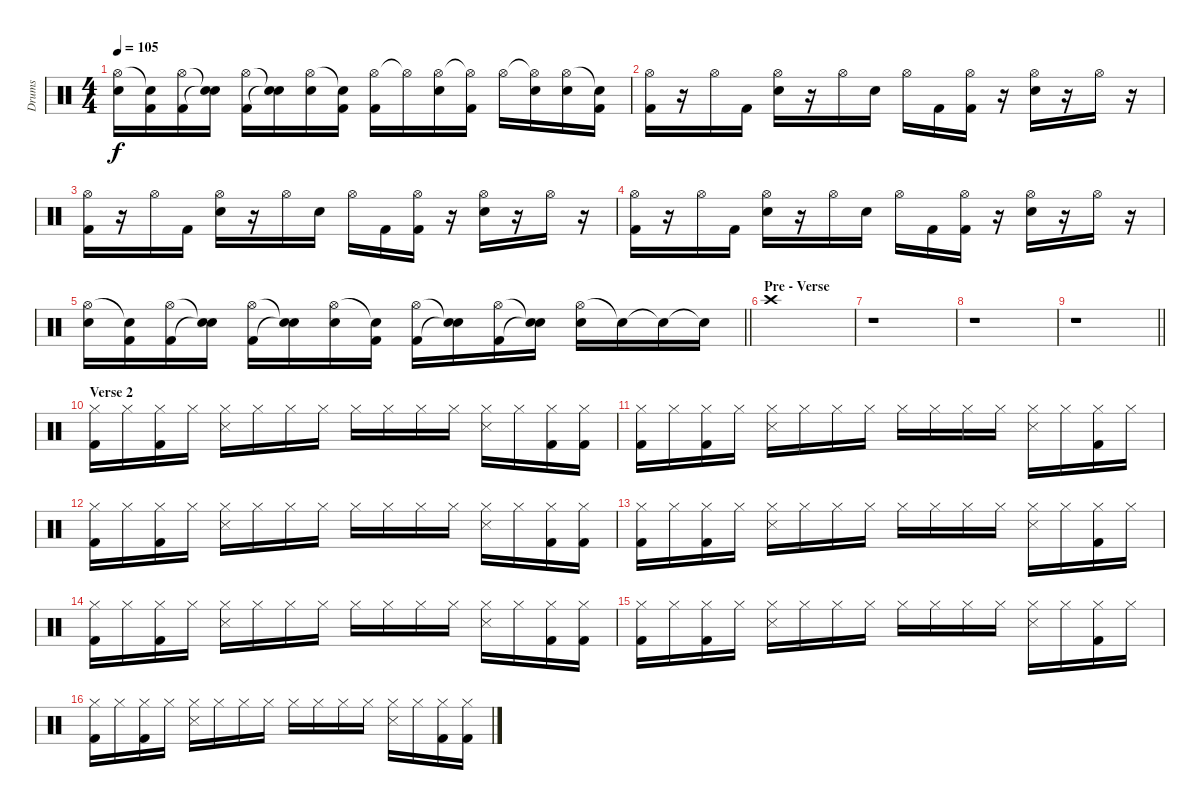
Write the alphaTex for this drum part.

\track ("Drums" "Drums") {instrument percussion}
\staff {score}
\articulation defaults
\ts (4 4)
\tempo 105
\clef neutral
\ks c
("Hi-Hat (open)" "Electric Snare (hit)").16{dy f} ("Snare (hit)"{t} "Kick (hit) 2").16 ("Hi-Hat (open)" "Kick (hit) 2").16 ("Snare (hit)"{t} "Snare (hit)"{t}).16 ("Hi-Hat (open)" "Kick (hit) 2").16 ("Snare (hit)"{t} "Snare (hit)"{t}).16 ("Hi-Hat (open)" "Electric Snare (hit)").16 ("Snare (hit)"{t} "Kick (hit) 2").16 ("Hi-Hat (open)" "Kick (hit) 2").16 "Hi-Hat (open)"{t}.16 ("Hi-Hat (open)" "Electric Snare (hit)").16 ("Hi-Hat (open)"{t} "Kick (hit) 2").16 "Hi-Hat (open)".16 ("Hi-Hat (open)"{t} "Electric Snare (hit)").16 ("Hi-Hat (open)" "Electric Snare (hit)").16 ("Snare (hit)"{t} "Kick (hit) 2").16 |
("Hi-Hat (open)" "Kick (hit) 2").16 r.16 "Hi-Hat (open)".16 "Kick (hit) 2".16 ("Hi-Hat (open)" "Electric Snare (hit)").16 r.16 "Hi-Hat (open)".16 "Electric Snare (hit)".16 "Hi-Hat (open)".16 "Kick (hit) 2".16 ("Hi-Hat (open)" "Kick (hit) 2").16 r.16 ("Hi-Hat (open)" "Electric Snare (hit)").16 r.16 "Hi-Hat (open)".16 r.16 |
("Hi-Hat (open)" "Kick (hit) 2").16 r.16 "Hi-Hat (open)".16 "Kick (hit) 2".16 ("Hi-Hat (open)" "Electric Snare (hit)").16 r.16 "Hi-Hat (open)".16 "Electric Snare (hit)".16 "Hi-Hat (open)".16 "Kick (hit) 2".16 ("Hi-Hat (open)" "Kick (hit) 2").16 r.16 ("Hi-Hat (open)" "Electric Snare (hit)").16 r.16 "Hi-Hat (open)".16 r.16 |
("Hi-Hat (open)" "Kick (hit) 2").16 r.16 "Hi-Hat (open)".16 "Kick (hit) 2".16 ("Hi-Hat (open)" "Electric Snare (hit)").16 r.16 "Hi-Hat (open)".16 "Electric Snare (hit)".16 "Hi-Hat (open)".16 "Kick (hit) 2".16 ("Hi-Hat (open)" "Kick (hit) 2").16 r.16 ("Hi-Hat (open)" "Electric Snare (hit)").16 r.16 "Hi-Hat (open)".16 r.16 |
\barLineRight lightlight
("Hi-Hat (open)" "Electric Snare (hit)").16 ("Snare (hit)"{t} "Kick (hit) 2").16 ("Hi-Hat (open)" "Kick (hit) 2").16 ("Snare (hit)"{t} "Snare (hit)"{t}).16 ("Hi-Hat (open)" "Kick (hit) 2").16 ("Snare (hit)"{t} "Snare (hit)"{t}).16 ("Hi-Hat (open)" "Electric Snare (hit)").16 ("Snare (hit)"{t} "Kick (hit) 2").16 ("Hi-Hat (open)" "Kick (hit) 2").16 ("Snare (hit)"{t} "Snare (hit)"{t}).16 ("Hi-Hat (open)" "Kick (hit) 2").16 ("Snare (hit)"{t} "Snare (hit)"{t}).16 ("Hi-Hat (open)" "Electric Snare (hit)").16 "Snare (hit)"{t}.16 "Snare (hit)"{t}.16 "Snare (hit)"{t}.16 |
\section ("" "Pre - Verse")
"Crash high (hit)".1 |
r.1 |
r.1 |
\barLineRight lightlight
r.1 |
\section ("" "Verse 2")
("Hi-Hat (closed)" "Kick (hit) 2").16 "Hi-Hat (closed)".16 ("Hi-Hat (closed)" "Kick (hit) 2").16 "Hi-Hat (closed)".16 ("Hi-Hat (closed)" "Snare (side stick) 3").16 "Hi-Hat (closed)".16 "Hi-Hat (closed)".16 "Hi-Hat (closed)".16 "Hi-Hat (closed)".16 "Hi-Hat (closed)".16 "Hi-Hat (closed)".16 "Hi-Hat (closed)".16 ("Hi-Hat (closed)" "Snare (side stick) 3").16 "Hi-Hat (closed)".16 ("Hi-Hat (closed)" "Kick (hit) 2").16 ("Hi-Hat (closed)" "Kick (hit) 2").16 |
("Hi-Hat (closed)" "Kick (hit) 2").16 "Hi-Hat (closed)".16 ("Hi-Hat (closed)" "Kick (hit) 2").16 "Hi-Hat (closed)".16 ("Hi-Hat (closed)" "Snare (side stick) 3").16 "Hi-Hat (closed)".16 "Hi-Hat (closed)".16 "Hi-Hat (closed)".16 "Hi-Hat (closed)".16 "Hi-Hat (closed)".16 "Hi-Hat (closed)".16 "Hi-Hat (closed)".16 ("Hi-Hat (closed)" "Snare (side stick) 3").16 "Hi-Hat (closed)".16 ("Hi-Hat (closed)" "Kick (hit) 2").16 "Hi-Hat (closed)".16 |
("Hi-Hat (closed)" "Kick (hit) 2").16 "Hi-Hat (closed)".16 ("Hi-Hat (closed)" "Kick (hit) 2").16 "Hi-Hat (closed)".16 ("Hi-Hat (closed)" "Snare (side stick) 3").16 "Hi-Hat (closed)".16 "Hi-Hat (closed)".16 "Hi-Hat (closed)".16 "Hi-Hat (closed)".16 "Hi-Hat (closed)".16 "Hi-Hat (closed)".16 "Hi-Hat (closed)".16 ("Hi-Hat (closed)" "Snare (side stick) 3").16 "Hi-Hat (closed)".16 ("Hi-Hat (closed)" "Kick (hit) 2").16 ("Hi-Hat (closed)" "Kick (hit) 2").16 |
("Hi-Hat (closed)" "Kick (hit) 2").16 "Hi-Hat (closed)".16 ("Hi-Hat (closed)" "Kick (hit) 2").16 "Hi-Hat (closed)".16 ("Hi-Hat (closed)" "Snare (side stick) 3").16 "Hi-Hat (closed)".16 "Hi-Hat (closed)".16 "Hi-Hat (closed)".16 "Hi-Hat (closed)".16 "Hi-Hat (closed)".16 "Hi-Hat (closed)".16 "Hi-Hat (closed)".16 ("Hi-Hat (closed)" "Snare (side stick) 3").16 "Hi-Hat (closed)".16 ("Hi-Hat (closed)" "Kick (hit) 2").16 "Hi-Hat (closed)".16 |
("Hi-Hat (closed)" "Kick (hit) 2").16 "Hi-Hat (closed)".16 ("Hi-Hat (closed)" "Kick (hit) 2").16 "Hi-Hat (closed)".16 ("Hi-Hat (closed)" "Snare (side stick) 3").16 "Hi-Hat (closed)".16 "Hi-Hat (closed)".16 "Hi-Hat (closed)".16 "Hi-Hat (closed)".16 "Hi-Hat (closed)".16 "Hi-Hat (closed)".16 "Hi-Hat (closed)".16 ("Hi-Hat (closed)" "Snare (side stick) 3").16 "Hi-Hat (closed)".16 ("Hi-Hat (closed)" "Kick (hit) 2").16 ("Hi-Hat (closed)" "Kick (hit) 2").16 |
("Hi-Hat (closed)" "Kick (hit) 2").16 "Hi-Hat (closed)".16 ("Hi-Hat (closed)" "Kick (hit) 2").16 "Hi-Hat (closed)".16 ("Hi-Hat (closed)" "Snare (side stick) 3").16 "Hi-Hat (closed)".16 "Hi-Hat (closed)".16 "Hi-Hat (closed)".16 "Hi-Hat (closed)".16 "Hi-Hat (closed)".16 "Hi-Hat (closed)".16 "Hi-Hat (closed)".16 ("Hi-Hat (closed)" "Snare (side stick) 3").16 "Hi-Hat (closed)".16 ("Hi-Hat (closed)" "Kick (hit) 2").16 "Hi-Hat (closed)".16 |
("Hi-Hat (closed)" "Kick (hit) 2").16 "Hi-Hat (closed)".16 ("Hi-Hat (closed)" "Kick (hit) 2").16 "Hi-Hat (closed)".16 ("Hi-Hat (closed)" "Snare (side stick) 3").16 "Hi-Hat (closed)".16 "Hi-Hat (closed)".16 "Hi-Hat (closed)".16 "Hi-Hat (closed)".16 "Hi-Hat (closed)".16 "Hi-Hat (closed)".16 "Hi-Hat (closed)".16 ("Hi-Hat (closed)" "Snare (side stick) 3").16 "Hi-Hat (closed)".16 ("Hi-Hat (closed)" "Kick (hit) 2").16 ("Hi-Hat (closed)" "Kick (hit) 2").16
